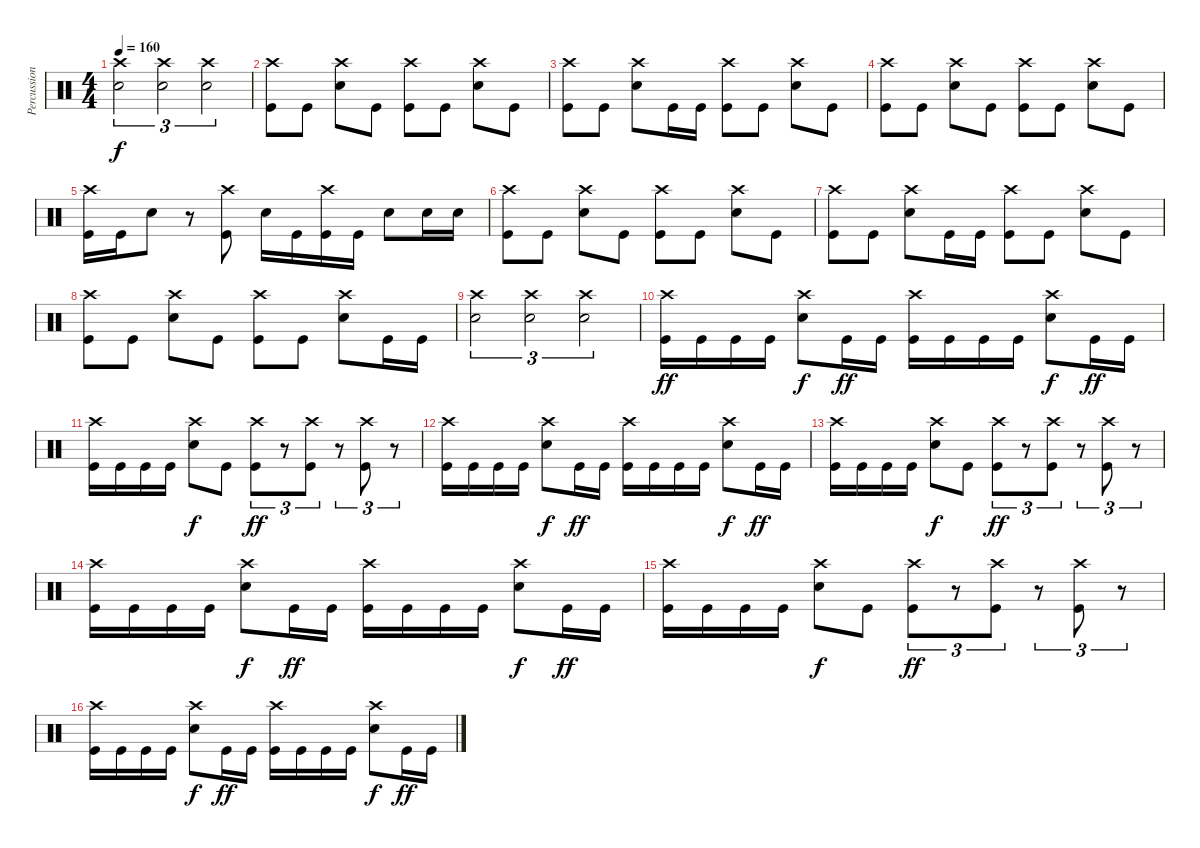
\track ("Percussion" "Percussion") {instrument percussion}
\staff {score}
\articulation defaults
\ts (4 4)
\tempo 160
\clef neutral
\ks c
("Crash high (hit)" "Electric Snare (hit)").2{tu (3 2) dy f} ("Crash high (hit)" "Electric Snare (hit)").2{tu (3 2)} ("Crash high (hit)" "Electric Snare (hit)").2{tu (3 2)} |
("Crash high (hit)" "Kick (hit)").8 "Kick (hit)".8 ("Crash high (hit)" "Electric Snare (hit)").8 "Kick (hit)".8 ("Crash high (hit)" "Kick (hit)").8 "Kick (hit)".8 ("Crash high (hit)" "Electric Snare (hit)").8 "Kick (hit)".8 |
("Crash high (hit)" "Kick (hit)").8 "Kick (hit)".8 ("Crash high (hit)" "Electric Snare (hit)").8 "Kick (hit)".16 "Kick (hit)".16 ("Crash high (hit)" "Kick (hit)").8 "Kick (hit)".8 ("Crash high (hit)" "Electric Snare (hit)").8 "Kick (hit)".8 |
("Crash high (hit)" "Kick (hit)").8 "Kick (hit)".8 ("Crash high (hit)" "Electric Snare (hit)").8 "Kick (hit)".8 ("Crash high (hit)" "Kick (hit)").8 "Kick (hit)".8 ("Crash high (hit)" "Electric Snare (hit)").8 "Kick (hit)".8 |
("Crash high (hit)" "Kick (hit)").16 "Kick (hit)".16 "Electric Snare (hit)".8 r.8 ("Crash high (hit)" "Kick (hit)").8 "Electric Snare (hit)".16 "Kick (hit)".16 ("Crash high (hit)" "Kick (hit)").16 "Kick (hit)".16 "Electric Snare (hit)".8 "Electric Snare (hit)".16 "Electric Snare (hit)".16 |
("Crash high (hit)" "Kick (hit)").8 "Kick (hit)".8 ("Crash high (hit)" "Electric Snare (hit)").8 "Kick (hit)".8 ("Crash high (hit)" "Kick (hit)").8 "Kick (hit)".8 ("Crash high (hit)" "Electric Snare (hit)").8 "Kick (hit)".8 |
("Crash high (hit)" "Kick (hit)").8 "Kick (hit)".8 ("Crash high (hit)" "Electric Snare (hit)").8 "Kick (hit)".16 "Kick (hit)".16 ("Crash high (hit)" "Kick (hit)").8 "Kick (hit)".8 ("Crash high (hit)" "Electric Snare (hit)").8 "Kick (hit)".8 |
("Crash high (hit)" "Kick (hit)").8 "Kick (hit)".8 ("Crash high (hit)" "Electric Snare (hit)").8 "Kick (hit)".8 ("Crash high (hit)" "Kick (hit)").8 "Kick (hit)".8 ("Crash high (hit)" "Electric Snare (hit)").8 "Kick (hit)".16 "Kick (hit)".16 |
("Crash high (hit)" "Electric Snare (hit)").2{tu (3 2)} ("Crash high (hit)" "Electric Snare (hit)").2{tu (3 2)} ("Crash high (hit)" "Electric Snare (hit)").2{tu (3 2)} |
("Crash high (hit)" "Kick (hit)").16{dy ff} "Kick (hit)".16 "Kick (hit)".16 "Kick (hit)".16 ("Crash high (hit)" "Electric Snare (hit)").8{dy f} "Kick (hit)".16{dy ff} "Kick (hit)".16 ("Crash high (hit)" "Kick (hit)").16 "Kick (hit)".16 "Kick (hit)".16 "Kick (hit)".16 ("Crash high (hit)" "Electric Snare (hit)").8{dy f} "Kick (hit)".16{dy ff} "Kick (hit)".16 |
("Crash high (hit)" "Kick (hit)").16 "Kick (hit)".16 "Kick (hit)".16 "Kick (hit)".16 ("Crash high (hit)" "Electric Snare (hit)").8{dy f} "Kick (hit)".8 ("Crash high (hit)" "Kick (hit)").8{tu (3 2) dy ff} r.8{tu (3 2)} ("Crash high (hit)" "Kick (hit)").8{tu (3 2)} r.8{tu (3 2)} ("Crash high (hit)" "Kick (hit)").8{tu (3 2)} r.8{tu (3 2)} |
("Crash high (hit)" "Kick (hit)").16 "Kick (hit)".16 "Kick (hit)".16 "Kick (hit)".16 ("Crash high (hit)" "Electric Snare (hit)").8{dy f} "Kick (hit)".16{dy ff} "Kick (hit)".16 ("Crash high (hit)" "Kick (hit)").16 "Kick (hit)".16 "Kick (hit)".16 "Kick (hit)".16 ("Crash high (hit)" "Electric Snare (hit)").8{dy f} "Kick (hit)".16{dy ff} "Kick (hit)".16 |
("Crash high (hit)" "Kick (hit)").16 "Kick (hit)".16 "Kick (hit)".16 "Kick (hit)".16 ("Crash high (hit)" "Electric Snare (hit)").8{dy f} "Kick (hit)".8 ("Crash high (hit)" "Kick (hit)").8{tu (3 2) dy ff} r.8{tu (3 2)} ("Crash high (hit)" "Kick (hit)").8{tu (3 2)} r.8{tu (3 2)} ("Crash high (hit)" "Kick (hit)").8{tu (3 2)} r.8{tu (3 2)} |
("Crash high (hit)" "Kick (hit)").16 "Kick (hit)".16 "Kick (hit)".16 "Kick (hit)".16 ("Crash high (hit)" "Electric Snare (hit)").8{dy f} "Kick (hit)".16{dy ff} "Kick (hit)".16 ("Crash high (hit)" "Kick (hit)").16 "Kick (hit)".16 "Kick (hit)".16 "Kick (hit)".16 ("Crash high (hit)" "Electric Snare (hit)").8{dy f} "Kick (hit)".16{dy ff} "Kick (hit)".16 |
("Crash high (hit)" "Kick (hit)").16 "Kick (hit)".16 "Kick (hit)".16 "Kick (hit)".16 ("Crash high (hit)" "Electric Snare (hit)").8{dy f} "Kick (hit)".8 ("Crash high (hit)" "Kick (hit)").8{tu (3 2) dy ff} r.8{tu (3 2)} ("Crash high (hit)" "Kick (hit)").8{tu (3 2)} r.8{tu (3 2)} ("Crash high (hit)" "Kick (hit)").8{tu (3 2)} r.8{tu (3 2)} |
("Crash high (hit)" "Kick (hit)").16 "Kick (hit)".16 "Kick (hit)".16 "Kick (hit)".16 ("Crash high (hit)" "Electric Snare (hit)").8{dy f} "Kick (hit)".16{dy ff} "Kick (hit)".16 ("Crash high (hit)" "Kick (hit)").16 "Kick (hit)".16 "Kick (hit)".16 "Kick (hit)".16 ("Crash high (hit)" "Electric Snare (hit)").8{dy f} "Kick (hit)".16{dy ff} "Kick (hit)".16
